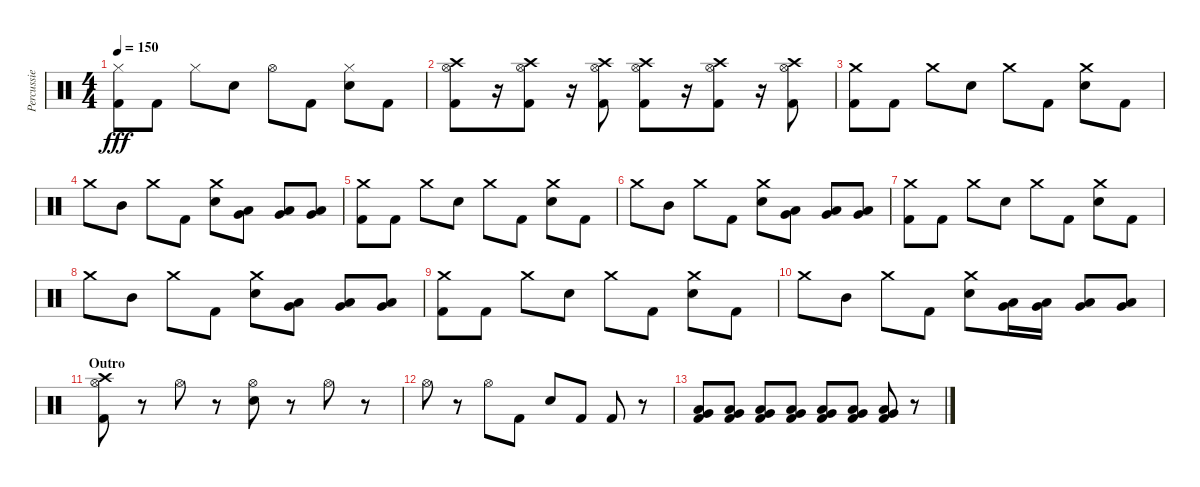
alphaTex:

\track ("Percussie" "Percussie") {instrument percussion}
\staff {score}
\articulation defaults
\ts (4 4)
\tempo 150
\clef neutral
\ks c
("Kick (hit) 2" "Hi-Hat (closed)").8{dy fff} "Kick (hit) 2".8 "Hi-Hat (closed)".8 "Electric Snare (hit)".8 "Hi-Hat (open)".8 "Kick (hit) 2".8 ("Electric Snare (hit)" "Hi-Hat (closed)").8 "Kick (hit) 2".8 |
("Kick (hit) 2" "Crash high (hit)" "Hi-Hat (open)").8 r.16 ("Kick (hit) 2" "Crash high (hit)" "Hi-Hat (open)").8 r.16 ("Kick (hit) 2" "Crash high (hit)" "Hi-Hat (open)").8 ("Kick (hit) 2" "Crash high (hit)" "Hi-Hat (open)").8 r.16 ("Kick (hit) 2" "Crash high (hit)" "Hi-Hat (open)").8 r.16 ("Kick (hit) 2" "Crash high (hit)" "Hi-Hat (open)").8 |
("Kick (hit) 2" "Crash medium (hit)").8 "Kick (hit) 2".8 "Crash medium (hit)".8 "Electric Snare (hit)".8 "Crash medium (hit)".8 "Kick (hit) 2".8 ("Electric Snare (hit)" "Crash medium (hit)").8 "Kick (hit) 2".8 |
"Crash medium (hit)".8 "Mid Tom (hit)".8 "Crash medium (hit)".8 "Kick (hit) 2".8 ("Electric Snare (hit)" "Crash medium (hit)").8 ("Low Tom (hit)" "Very Low Tom (hit)").8 ("Low Tom (hit)" "Very Low Tom (hit)").8 ("Low Tom (hit)" "Very Low Tom (hit)").8 |
("Kick (hit) 2" "Crash medium (hit)").8 "Kick (hit) 2".8 "Crash medium (hit)".8 "Electric Snare (hit)".8 "Crash medium (hit)".8 "Kick (hit) 2".8 ("Electric Snare (hit)" "Crash medium (hit)").8 "Kick (hit) 2".8 |
"Crash medium (hit)".8 "Mid Tom (hit)".8 "Crash medium (hit)".8 "Kick (hit) 2".8 ("Electric Snare (hit)" "Crash medium (hit)").8 ("Low Tom (hit)" "Very Low Tom (hit)").8 ("Low Tom (hit)" "Very Low Tom (hit)").8 ("Low Tom (hit)" "Very Low Tom (hit)").8 |
("Kick (hit) 2" "Crash medium (hit)").8 "Kick (hit) 2".8 "Crash medium (hit)".8 "Electric Snare (hit)".8 "Crash medium (hit)".8 "Kick (hit) 2".8 ("Electric Snare (hit)" "Crash medium (hit)").8 "Kick (hit) 2".8 |
"Crash medium (hit)".8 "Mid Tom (hit)".8 "Crash medium (hit)".8 "Kick (hit) 2".8 ("Electric Snare (hit)" "Crash medium (hit)").8 ("Low Tom (hit)" "Very Low Tom (hit)").8 ("Low Tom (hit)" "Very Low Tom (hit)").8 ("Low Tom (hit)" "Very Low Tom (hit)").8 |
("Kick (hit) 2" "Crash medium (hit)").8 "Kick (hit) 2".8 "Crash medium (hit)".8 "Electric Snare (hit)".8 "Crash medium (hit)".8 "Kick (hit) 2".8 ("Electric Snare (hit)" "Crash medium (hit)").8 "Kick (hit) 2".8 |
"Crash medium (hit)".8 "Mid Tom (hit)".8 "Crash medium (hit)".8 "Kick (hit) 2".8 ("Electric Snare (hit)" "Crash medium (hit)").8 ("Low Tom (hit)" "Very Low Tom (hit)").16 ("Low Tom (hit)" "Very Low Tom (hit)").16 ("Low Tom (hit)" "Very Low Tom (hit)").8 ("Low Tom (hit)" "Very Low Tom (hit)").8 |
\section ("" "Outro")
("Kick (hit) 2" "Crash high (hit)" "Hi-Hat (open)").8 r.8 "Hi-Hat (open)".8 r.8 ("Electric Snare (hit)" "Hi-Hat (open)").8 r.8 "Hi-Hat (open)".8 r.8 |
"Hi-Hat (open)".8 r.8 "Hi-Hat (open)".8 "Kick (hit) 2".8 "Electric Snare (hit)".8 "Kick (hit) 2".8 "Kick (hit) 2".8 r.8 |
("Kick (hit) 2" "Low Tom (hit)" "Very Low Tom (hit)").8 ("Kick (hit) 2" "Low Tom (hit)" "Very Low Tom (hit)").8 ("Kick (hit) 2" "Low Tom (hit)" "Very Low Tom (hit)").8 ("Kick (hit) 2" "Low Tom (hit)" "Very Low Tom (hit)").8 ("Kick (hit) 2" "Low Tom (hit)" "Very Low Tom (hit)").8 ("Kick (hit) 2" "Low Tom (hit)" "Very Low Tom (hit)").8 ("Kick (hit) 2" "Low Tom (hit)" "Very Low Tom (hit)").8 r.8
